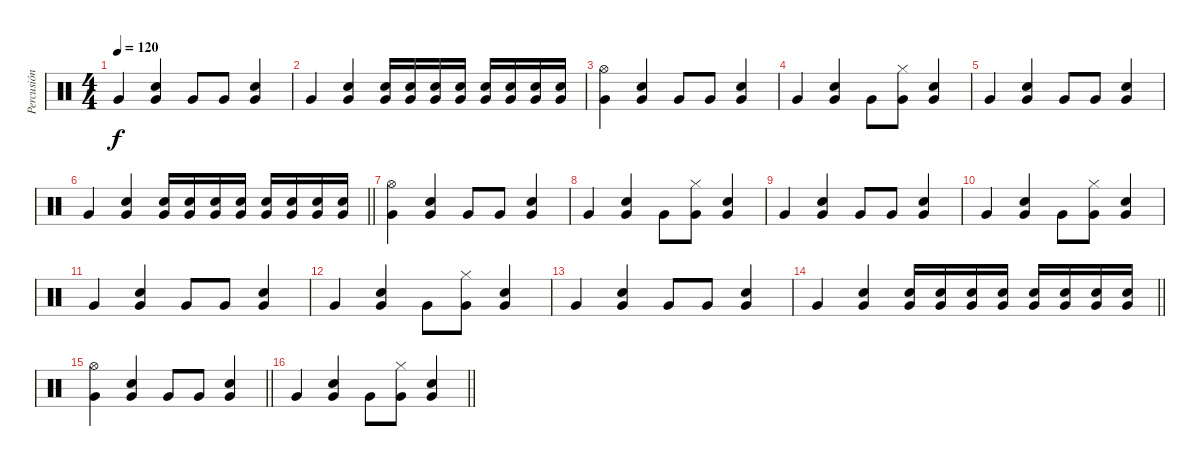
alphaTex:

\track ("Percusión" "Percusión") {instrument percussion}
\staff {score}
\articulation defaults
\ts (4 4)
\tempo 120
\clef neutral
\ks c "Very Low Tom (hit)".4{dy f}
("Electric Snare (hit)" "Very Low Tom (hit)").4 "Very Low Tom (hit)".8 "Very Low Tom (hit)".8 ("Electric Snare (hit)" "Very Low Tom (hit)").4 |
"Very Low Tom (hit)".4 ("Electric Snare (hit)" "Very Low Tom (hit)").4 ("Electric Snare (hit)" "Very Low Tom (hit)").16 ("Electric Snare (hit)" "Very Low Tom (hit)").16 ("Electric Snare (hit)" "Very Low Tom (hit)").16 ("Electric Snare (hit)" "Very Low Tom (hit)").16 ("Electric Snare (hit)" "Very Low Tom (hit)").16 ("Electric Snare (hit)" "Very Low Tom (hit)").16 ("Electric Snare (hit)" "Very Low Tom (hit)").16 ("Electric Snare (hit)" "Very Low Tom (hit)").16 |
("Very Low Tom (hit)" "Hi-Hat (open)").4 ("Electric Snare (hit)" "Very Low Tom (hit)").4 "Very Low Tom (hit)".8 "Very Low Tom (hit)".8 ("Electric Snare (hit)" "Very Low Tom (hit)").4 |
"Very Low Tom (hit)".4 ("Electric Snare (hit)" "Very Low Tom (hit)").4 "Very Low Tom (hit)".8 ("Very Low Tom (hit)" "Hi-Hat (closed)").8 ("Electric Snare (hit)" "Very Low Tom (hit)").4 |
"Very Low Tom (hit)".4 ("Electric Snare (hit)" "Very Low Tom (hit)").4 "Very Low Tom (hit)".8 "Very Low Tom (hit)".8 ("Electric Snare (hit)" "Very Low Tom (hit)").4 |
\barLineRight lightlight "Very Low Tom (hit)".4
("Electric Snare (hit)" "Very Low Tom (hit)").4 ("Electric Snare (hit)" "Very Low Tom (hit)").16 ("Electric Snare (hit)" "Very Low Tom (hit)").16 ("Electric Snare (hit)" "Very Low Tom (hit)").16 ("Electric Snare (hit)" "Very Low Tom (hit)").16 ("Electric Snare (hit)" "Very Low Tom (hit)").16 ("Electric Snare (hit)" "Very Low Tom (hit)").16 ("Electric Snare (hit)" "Very Low Tom (hit)").16 ("Electric Snare (hit)" "Very Low Tom (hit)").16 |
("Very Low Tom (hit)" "Hi-Hat (open)").4 ("Electric Snare (hit)" "Very Low Tom (hit)").4 "Very Low Tom (hit)".8 "Very Low Tom (hit)".8 ("Electric Snare (hit)" "Very Low Tom (hit)").4 |
"Very Low Tom (hit)".4 ("Electric Snare (hit)" "Very Low Tom (hit)").4 "Very Low Tom (hit)".8 ("Very Low Tom (hit)" "Hi-Hat (closed)").8 ("Electric Snare (hit)" "Very Low Tom (hit)").4 |
"Very Low Tom (hit)".4 ("Electric Snare (hit)" "Very Low Tom (hit)").4 "Very Low Tom (hit)".8 "Very Low Tom (hit)".8 ("Electric Snare (hit)" "Very Low Tom (hit)").4 |
"Very Low Tom (hit)".4 ("Electric Snare (hit)" "Very Low Tom (hit)").4 "Very Low Tom (hit)".8 ("Very Low Tom (hit)" "Hi-Hat (closed)").8 ("Electric Snare (hit)" "Very Low Tom (hit)").4 |
"Very Low Tom (hit)".4 ("Electric Snare (hit)" "Very Low Tom (hit)").4 "Very Low Tom (hit)".8 "Very Low Tom (hit)".8 ("Electric Snare (hit)" "Very Low Tom (hit)").4 |
"Very Low Tom (hit)".4 ("Electric Snare (hit)" "Very Low Tom (hit)").4 "Very Low Tom (hit)".8 ("Very Low Tom (hit)" "Hi-Hat (closed)").8 ("Electric Snare (hit)" "Very Low Tom (hit)").4 |
"Very Low Tom (hit)".4 ("Electric Snare (hit)" "Very Low Tom (hit)").4 "Very Low Tom (hit)".8 "Very Low Tom (hit)".8 ("Electric Snare (hit)" "Very Low Tom (hit)").4 |
\barLineRight lightlight "Very Low Tom (hit)".4
("Electric Snare (hit)" "Very Low Tom (hit)").4 ("Electric Snare (hit)" "Very Low Tom (hit)").16 ("Electric Snare (hit)" "Very Low Tom (hit)").16 ("Electric Snare (hit)" "Very Low Tom (hit)").16 ("Electric Snare (hit)" "Very Low Tom (hit)").16 ("Electric Snare (hit)" "Very Low Tom (hit)").16 ("Electric Snare (hit)" "Very Low Tom (hit)").16 ("Electric Snare (hit)" "Very Low Tom (hit)").16 ("Electric Snare (hit)" "Very Low Tom (hit)").16 |
\barLineRight lightlight
("Very Low Tom (hit)" "Hi-Hat (open)").4 ("Electric Snare (hit)" "Very Low Tom (hit)").4 "Very Low Tom (hit)".8 "Very Low Tom (hit)".8 ("Electric Snare (hit)" "Very Low Tom (hit)").4 |
\barLineRight lightlight "Very Low Tom (hit)".4
("Electric Snare (hit)" "Very Low Tom (hit)").4 "Very Low Tom (hit)".8 ("Very Low Tom (hit)" "Hi-Hat (closed)").8 ("Electric Snare (hit)" "Very Low Tom (hit)").4
